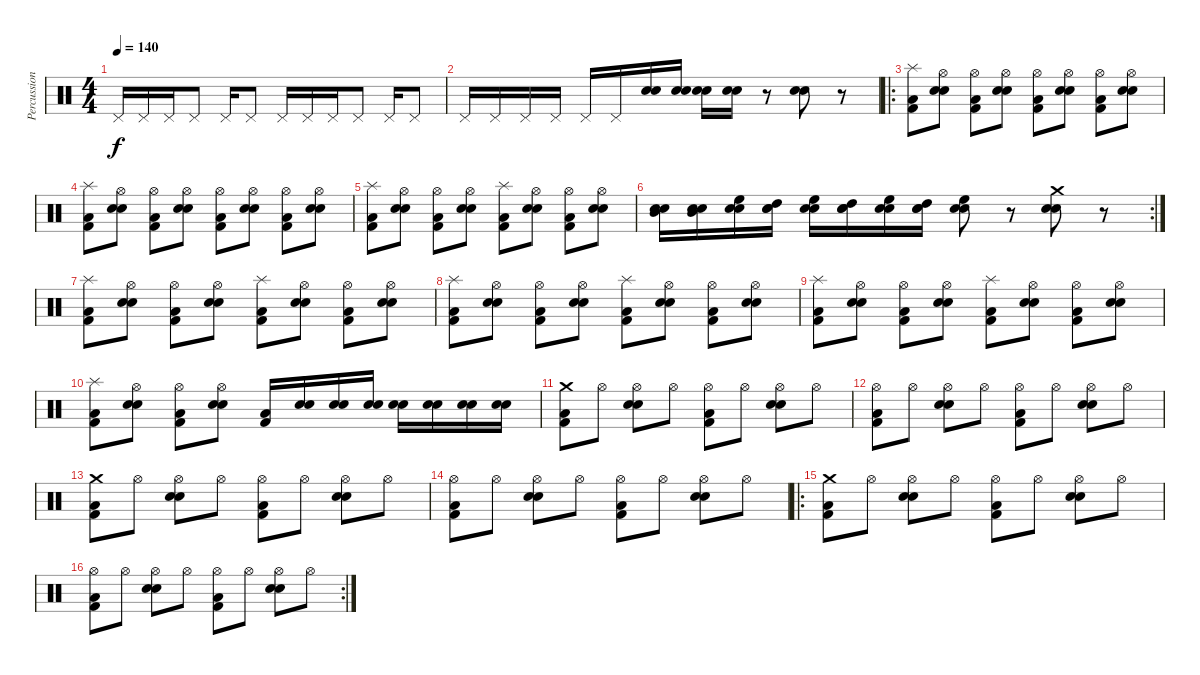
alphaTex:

\track ("Percussions" "Percussion") {instrument percussion}
\staff {score}
\articulation defaults
\ts (4 4)
\tempo 140
\clef neutral
\ks c "Pedal Hi-Hat (hit)".16{dy f} "Pedal Hi-Hat (hit)".16 "Pedal Hi-Hat (hit)".16 "Pedal Hi-Hat (hit)".8 "Pedal Hi-Hat (hit)".16 "Pedal Hi-Hat (hit)".8 "Pedal Hi-Hat (hit)".16 "Pedal Hi-Hat (hit)".16 "Pedal Hi-Hat (hit)".16 "Pedal Hi-Hat (hit)".8 "Pedal Hi-Hat (hit)".16 "Pedal Hi-Hat (hit)".8
|
"Pedal Hi-Hat (hit)".16 "Pedal Hi-Hat (hit)".16 "Pedal Hi-Hat (hit)".16 "Pedal Hi-Hat (hit)".16 "Pedal Hi-Hat (hit)".16 "Pedal Hi-Hat (hit)".16 ("Snare (hit) 2" "Electric Snare (hit)").16 ("Snare (hit) 2" "Electric Snare (hit)").16 ("Snare (hit) 2" "Electric Snare (hit)").16 ("Snare (hit) 2" "Electric Snare (hit)").16 r.8 ("Snare (hit) 2" "Electric Snare (hit)").8 r.8 |
\ro
("Splash (hit)" "Kick (hit) 2" "Low Floor Tom (hit)").8 ("Hi-Hat (open)" "Snare (hit) 2" "Electric Snare (hit)").8 ("Hi-Hat (open)" "Kick (hit) 2" "Low Floor Tom (hit)").8 ("Hi-Hat (open)" "Snare (hit) 2" "Electric Snare (hit)").8 ("Hi-Hat (open)" "Kick (hit) 2" "Low Floor Tom (hit)").8 ("Hi-Hat (open)" "Snare (hit) 2" "Electric Snare (hit)").8 ("Hi-Hat (open)" "Kick (hit) 2" "Low Floor Tom (hit)").8 ("Hi-Hat (open)" "Snare (hit) 2" "Electric Snare (hit)").8 |
("Splash (hit)" "Kick (hit) 2" "Low Floor Tom (hit)").8 ("Hi-Hat (open)" "Snare (hit) 2" "Electric Snare (hit)").8 ("Hi-Hat (open)" "Kick (hit) 2" "Low Floor Tom (hit)").8 ("Hi-Hat (open)" "Snare (hit) 2" "Electric Snare (hit)").8 ("Hi-Hat (open)" "Kick (hit) 2" "Low Floor Tom (hit)").8 ("Hi-Hat (open)" "Snare (hit) 2" "Electric Snare (hit)").8 ("Hi-Hat (open)" "Kick (hit) 2" "Low Floor Tom (hit)").8 ("Hi-Hat (open)" "Snare (hit) 2" "Electric Snare (hit)").8 |
("Splash (hit)" "Kick (hit) 2" "Low Floor Tom (hit)").8 ("Hi-Hat (open)" "Snare (hit) 2" "Electric Snare (hit)").8 ("Hi-Hat (open)" "Kick (hit) 2" "Low Floor Tom (hit)").8 ("Hi-Hat (open)" "Snare (hit) 2" "Electric Snare (hit)").8 ("Splash (hit)" "Kick (hit) 2" "Low Floor Tom (hit)").8 ("Hi-Hat (open)" "Snare (hit) 2" "Electric Snare (hit)").8 ("Hi-Hat (open)" "Kick (hit) 2" "Low Floor Tom (hit)").8 ("Hi-Hat (open)" "Snare (hit) 2" "Electric Snare (hit)").8 |
\rc 2
("Mid Tom (hit)" "Snare (hit) 2" "Electric Snare (hit)").16 ("Mid Tom (hit)" "Snare (hit) 2" "Electric Snare (hit)").16 ("High Floor Tom (hit)" "Snare (hit) 2" "Electric Snare (hit)").16 ("High Tom (hit)" "Snare (hit) 2" "Electric Snare (hit)").16 ("High Floor Tom (hit)" "Snare (hit) 2" "Electric Snare (hit)").16 ("High Tom (hit)" "Snare (hit) 2" "Electric Snare (hit)").16 ("High Floor Tom (hit)" "Snare (hit) 2" "Electric Snare (hit)").16 ("High Tom (hit)" "Snare (hit) 2" "Electric Snare (hit)").16 ("High Floor Tom (hit)" "Snare (hit) 2" "Electric Snare (hit)").8 r.8 ("Crash medium (hit)" "Snare (hit) 2" "Electric Snare (hit)").8 r.8 |
("Splash (hit)" "Kick (hit) 2" "Low Floor Tom (hit)").8 ("Hi-Hat (open)" "Snare (hit) 2" "Electric Snare (hit)").8 ("Hi-Hat (open)" "Kick (hit) 2" "Low Floor Tom (hit)").8 ("Hi-Hat (open)" "Snare (hit) 2" "Electric Snare (hit)").8 ("Splash (hit)" "Kick (hit) 2" "Low Floor Tom (hit)").8 ("Hi-Hat (open)" "Snare (hit) 2" "Electric Snare (hit)").8 ("Hi-Hat (open)" "Kick (hit) 2" "Low Floor Tom (hit)").8 ("Hi-Hat (open)" "Snare (hit) 2" "Electric Snare (hit)").8 |
("Splash (hit)" "Kick (hit) 2" "Low Floor Tom (hit)").8 ("Hi-Hat (open)" "Snare (hit) 2" "Electric Snare (hit)").8 ("Hi-Hat (open)" "Kick (hit) 2" "Low Floor Tom (hit)").8 ("Hi-Hat (open)" "Snare (hit) 2" "Electric Snare (hit)").8 ("Splash (hit)" "Kick (hit) 2" "Low Floor Tom (hit)").8 ("Hi-Hat (open)" "Snare (hit) 2" "Electric Snare (hit)").8 ("Hi-Hat (open)" "Kick (hit) 2" "Low Floor Tom (hit)").8 ("Hi-Hat (open)" "Snare (hit) 2" "Electric Snare (hit)").8 |
("Splash (hit)" "Kick (hit) 2" "Low Floor Tom (hit)").8 ("Hi-Hat (open)" "Snare (hit) 2" "Electric Snare (hit)").8 ("Hi-Hat (open)" "Kick (hit) 2" "Low Floor Tom (hit)").8 ("Hi-Hat (open)" "Snare (hit) 2" "Electric Snare (hit)").8 ("Splash (hit)" "Kick (hit) 2" "Low Floor Tom (hit)").8 ("Hi-Hat (open)" "Snare (hit) 2" "Electric Snare (hit)").8 ("Hi-Hat (open)" "Kick (hit) 2" "Low Floor Tom (hit)").8 ("Hi-Hat (open)" "Snare (hit) 2" "Electric Snare (hit)").8 |
("Splash (hit)" "Kick (hit) 2" "Low Floor Tom (hit)").8 ("Hi-Hat (open)" "Snare (hit) 2" "Electric Snare (hit)").8 ("Hi-Hat (open)" "Kick (hit) 2" "Low Floor Tom (hit)").8 ("Hi-Hat (open)" "Snare (hit) 2" "Electric Snare (hit)").8 ("Kick (hit) 2" "Low Floor Tom (hit)").16 ("Snare (hit) 2" "Electric Snare (hit)").16 ("Snare (hit) 2" "Electric Snare (hit)").16 ("Snare (hit) 2" "Electric Snare (hit)").16 ("Snare (hit) 2" "Electric Snare (hit)").16 ("Snare (hit) 2" "Electric Snare (hit)").16 ("Snare (hit) 2" "Electric Snare (hit)").16 ("Snare (hit) 2" "Electric Snare (hit)").16 |
("Crash medium (hit)" "Kick (hit) 2" "Low Floor Tom (hit)").8 "Hi-Hat (open)".8 ("Hi-Hat (open)" "Snare (hit) 2" "Electric Snare (hit)").8 "Hi-Hat (open)".8 ("Hi-Hat (open)" "Kick (hit) 2" "Low Floor Tom (hit)").8 "Hi-Hat (open)".8 ("Hi-Hat (open)" "Snare (hit) 2" "Electric Snare (hit)").8 "Hi-Hat (open)".8 |
("Hi-Hat (open)" "Kick (hit) 2" "Low Floor Tom (hit)").8 "Hi-Hat (open)".8 ("Hi-Hat (open)" "Snare (hit) 2" "Electric Snare (hit)").8 "Hi-Hat (open)".8 ("Hi-Hat (open)" "Kick (hit) 2" "Low Floor Tom (hit)").8 "Hi-Hat (open)".8 ("Hi-Hat (open)" "Snare (hit) 2" "Electric Snare (hit)").8 "Hi-Hat (open)".8 |
("Crash medium (hit)" "Kick (hit) 2" "Low Floor Tom (hit)").8 "Hi-Hat (open)".8 ("Hi-Hat (open)" "Snare (hit) 2" "Electric Snare (hit)").8 "Hi-Hat (open)".8 ("Hi-Hat (open)" "Kick (hit) 2" "Low Floor Tom (hit)").8 "Hi-Hat (open)".8 ("Hi-Hat (open)" "Snare (hit) 2" "Electric Snare (hit)").8 "Hi-Hat (open)".8 |
("Hi-Hat (open)" "Kick (hit) 2" "Low Floor Tom (hit)").8 "Hi-Hat (open)".8 ("Hi-Hat (open)" "Snare (hit) 2" "Electric Snare (hit)").8 "Hi-Hat (open)".8 ("Hi-Hat (open)" "Kick (hit) 2" "Low Floor Tom (hit)").8 "Hi-Hat (open)".8 ("Hi-Hat (open)" "Snare (hit) 2" "Electric Snare (hit)").8 "Hi-Hat (open)".8 |
\ro
("Crash medium (hit)" "Kick (hit) 2" "Low Floor Tom (hit)").8 "Hi-Hat (open)".8 ("Hi-Hat (open)" "Snare (hit) 2" "Electric Snare (hit)").8 "Hi-Hat (open)".8 ("Hi-Hat (open)" "Kick (hit) 2" "Low Floor Tom (hit)").8 "Hi-Hat (open)".8 ("Hi-Hat (open)" "Snare (hit) 2" "Electric Snare (hit)").8 "Hi-Hat (open)".8 |
\rc 2
("Hi-Hat (open)" "Kick (hit) 2" "Low Floor Tom (hit)").8 "Hi-Hat (open)".8 ("Hi-Hat (open)" "Snare (hit) 2" "Electric Snare (hit)").8 "Hi-Hat (open)".8 ("Hi-Hat (open)" "Kick (hit) 2" "Low Floor Tom (hit)").8 "Hi-Hat (open)".8 ("Hi-Hat (open)" "Snare (hit) 2" "Electric Snare (hit)").8 "Hi-Hat (open)".8
